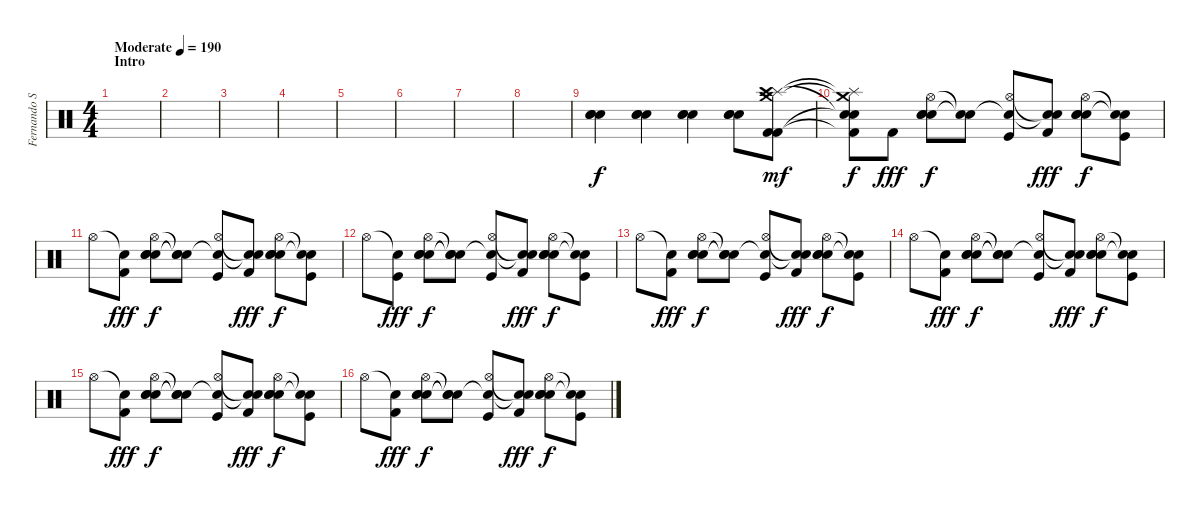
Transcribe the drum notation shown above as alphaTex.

\track ("Fernando Sarcella" "Fernando S") {instrument percussion}
\staff {score}
\articulation defaults
\ts (4 4)
\section ("" "Intro")
\tempo (190 "Moderate")
\clef neutral
\ks c
|
|
|
|
|
|
|
|
("Electric Snare (hit)" "Electric Snare (hit)" "Electric Snare (hit)").4 ("Electric Snare (hit)" "Electric Snare (hit)" "Electric Snare (hit)").4 ("Electric Snare (hit)" "Electric Snare (hit)" "Electric Snare (hit)").4 ("Electric Snare (hit)" "Electric Snare (hit)" "Electric Snare (hit)").8 ("Crash medium (hit)" "Splash (hit)" "Crash high (hit)" "Kick (hit) 2" "Kick (hit) 2").8{dy mf} |
("Crash medium (hit)"{t} "Splash (hit)"{t} "Snare (hit)"{t} "Snare (hit)"{t} "Kick (hit) 2"{t}).8{dy f} "Kick (hit) 2".8{dy fff} ("Hi-Hat (open)" "Electric Snare (hit)" "Electric Snare (hit)" "Electric Snare (hit)").8{dy f} ("Snare (hit)"{t} "Snare (hit)"{t}).8 ("Hi-Hat (open)" "Snare (hit)"{t} "Kick (hit)").8 ("Snare (hit)"{t} "Snare (hit)"{t} "Kick (hit) 2").8{dy fff} ("Hi-Hat (open)" "Electric Snare (hit)" "Electric Snare (hit)" "Electric Snare (hit)").8{dy f} ("Snare (hit)"{t} "Snare (hit)"{t} "Kick (hit)").8 |
"Hi-Hat (open)".8 ("Snare (hit)"{t} "Kick (hit) 2").8{dy fff} ("Hi-Hat (open)" "Electric Snare (hit)" "Electric Snare (hit)" "Electric Snare (hit)").8{dy f} ("Snare (hit)"{t} "Snare (hit)"{t} "Snare (hit)"{t}).8 ("Hi-Hat (open)" "Snare (hit)"{t} "Kick (hit)").8 ("Snare (hit)"{t} "Snare (hit)"{t} "Kick (hit) 2").8{dy fff} ("Hi-Hat (open)" "Electric Snare (hit)" "Electric Snare (hit)" "Electric Snare (hit)").8{dy f} ("Snare (hit)"{t} "Snare (hit)"{t} "Kick (hit)").8 |
"Hi-Hat (open)".8 ("Snare (hit)"{t} "Kick (hit)").8{dy fff} ("Hi-Hat (open)" "Electric Snare (hit)" "Electric Snare (hit)" "Electric Snare (hit)").8{dy f} ("Snare (hit)"{t} "Snare (hit)"{t} "Snare (hit)"{t}).8 ("Hi-Hat (open)" "Snare (hit)"{t} "Kick (hit)").8 ("Snare (hit)"{t} "Snare (hit)"{t} "Kick (hit) 2").8{dy fff} ("Hi-Hat (open)" "Electric Snare (hit)" "Electric Snare (hit)" "Electric Snare (hit)").8{dy f} ("Snare (hit)"{t} "Snare (hit)"{t} "Kick (hit)").8 |
"Hi-Hat (open)".8 ("Snare (hit)"{t} "Kick (hit) 2").8{dy fff} ("Hi-Hat (open)" "Electric Snare (hit)" "Electric Snare (hit)" "Electric Snare (hit)").8{dy f} ("Snare (hit)"{t} "Snare (hit)"{t} "Snare (hit)"{t}).8 ("Hi-Hat (open)" "Snare (hit)"{t} "Kick (hit)").8 ("Snare (hit)"{t} "Snare (hit)"{t} "Kick (hit) 2").8{dy fff} ("Hi-Hat (open)" "Electric Snare (hit)" "Electric Snare (hit)" "Electric Snare (hit)").8{dy f} ("Snare (hit)"{t} "Snare (hit)"{t} "Kick (hit)").8 |
"Hi-Hat (open)".8 ("Snare (hit)"{t} "Kick (hit) 2").8{dy fff} ("Hi-Hat (open)" "Electric Snare (hit)" "Electric Snare (hit)" "Electric Snare (hit)").8{dy f} ("Snare (hit)"{t} "Snare (hit)"{t} "Snare (hit)"{t}).8 ("Hi-Hat (open)" "Snare (hit)"{t} "Kick (hit)").8 ("Snare (hit)"{t} "Snare (hit)"{t} "Kick (hit) 2").8{dy fff} ("Hi-Hat (open)" "Electric Snare (hit)" "Electric Snare (hit)" "Electric Snare (hit)").8{dy f} ("Snare (hit)"{t} "Snare (hit)"{t} "Kick (hit)").8 |
"Hi-Hat (open)".8 ("Snare (hit)"{t} "Kick (hit) 2").8{dy fff} ("Hi-Hat (open)" "Electric Snare (hit)" "Electric Snare (hit)" "Electric Snare (hit)").8{dy f} ("Snare (hit)"{t} "Snare (hit)"{t} "Snare (hit)"{t}).8 ("Hi-Hat (open)" "Snare (hit)"{t} "Kick (hit)").8 ("Snare (hit)"{t} "Snare (hit)"{t} "Kick (hit) 2").8{dy fff} ("Hi-Hat (open)" "Electric Snare (hit)" "Electric Snare (hit)" "Electric Snare (hit)").8{dy f} ("Snare (hit)"{t} "Snare (hit)"{t} "Kick (hit)").8 |
"Hi-Hat (open)".8 ("Snare (hit)"{t} "Kick (hit) 2").8{dy fff} ("Hi-Hat (open)" "Electric Snare (hit)" "Electric Snare (hit)" "Electric Snare (hit)").8{dy f} ("Snare (hit)"{t} "Snare (hit)"{t} "Snare (hit)"{t}).8 ("Hi-Hat (open)" "Snare (hit)"{t} "Kick (hit)").8 ("Snare (hit)"{t} "Snare (hit)"{t} "Kick (hit) 2").8{dy fff} ("Hi-Hat (open)" "Electric Snare (hit)" "Electric Snare (hit)" "Electric Snare (hit)").8{dy f} ("Snare (hit)"{t} "Snare (hit)"{t} "Kick (hit)").8
